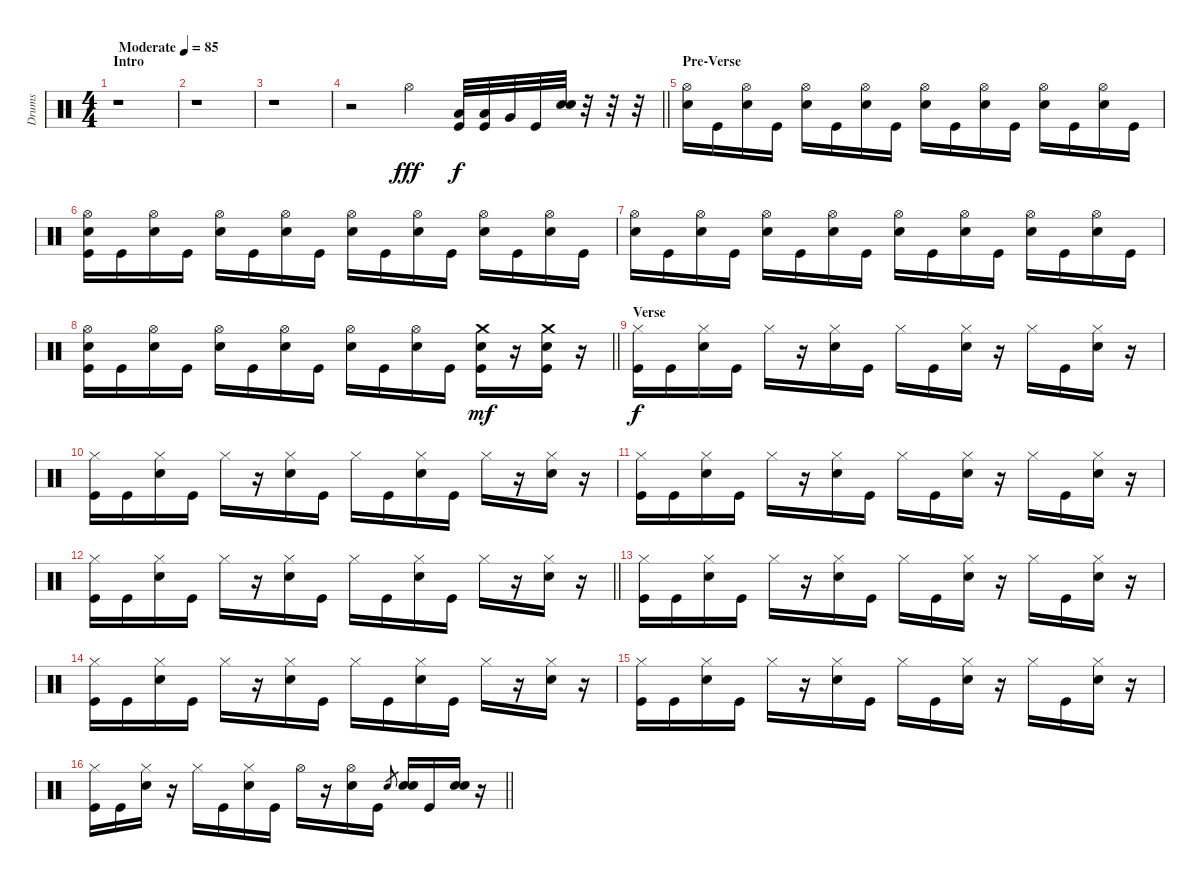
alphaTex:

\track ("Drums" "Drums") {instrument percussion}
\staff {score}
\articulation defaults
\ts (4 4)
\section ("" "Intro")
\tempo (85 "Moderate")
\clef neutral
\ks c
r.1{dy fff} |
r.1 |
r.1 |
\barLineRight lightlight
r.2{volume 2} "Hi-Hat (open)".4{volume 13} ("Low Tom (hit)" "Kick (hit)").32{dy f} ("Low Tom (hit)" "Kick (hit)").32 "Very Low Tom (hit)".32 "Kick (hit)".32 ("Electric Snare (hit)" "Electric Snare (hit)").32 r.32 r.32 r.32 |
\section ("" "Pre-Verse")
("Hi-Hat (open)" "Electric Snare (hit)").16 "Kick (hit)".16 ("Hi-Hat (open)" "Electric Snare (hit)").16 "Kick (hit)".16 ("Hi-Hat (open)" "Electric Snare (hit)").16 "Kick (hit)".16 ("Hi-Hat (open)" "Electric Snare (hit)").16 "Kick (hit)".16 ("Hi-Hat (open)" "Electric Snare (hit)").16 "Kick (hit)".16 ("Hi-Hat (open)" "Electric Snare (hit)").16 "Kick (hit)".16 ("Hi-Hat (open)" "Electric Snare (hit)").16 "Kick (hit)".16 ("Hi-Hat (open)" "Electric Snare (hit)").16 "Kick (hit)".16 |
("Hi-Hat (open)" "Electric Snare (hit)" "Kick (hit)").16 "Kick (hit)".16 ("Hi-Hat (open)" "Electric Snare (hit)").16 "Kick (hit)".16 ("Hi-Hat (open)" "Electric Snare (hit)").16 "Kick (hit)".16 ("Hi-Hat (open)" "Electric Snare (hit)").16 "Kick (hit)".16 ("Hi-Hat (open)" "Electric Snare (hit)").16 "Kick (hit)".16 ("Hi-Hat (open)" "Electric Snare (hit)").16 "Kick (hit)".16 ("Hi-Hat (open)" "Electric Snare (hit)").16 "Kick (hit)".16 ("Hi-Hat (open)" "Electric Snare (hit)").16 "Kick (hit)".16 |
("Hi-Hat (open)" "Electric Snare (hit)").16 "Kick (hit)".16 ("Hi-Hat (open)" "Electric Snare (hit)").16 "Kick (hit)".16 ("Hi-Hat (open)" "Electric Snare (hit)").16 "Kick (hit)".16 ("Hi-Hat (open)" "Electric Snare (hit)").16 "Kick (hit)".16 ("Hi-Hat (open)" "Electric Snare (hit)").16 "Kick (hit)".16 ("Hi-Hat (open)" "Electric Snare (hit)").16 "Kick (hit)".16 ("Hi-Hat (open)" "Electric Snare (hit)").16 "Kick (hit)".16 ("Hi-Hat (open)" "Electric Snare (hit)").16 "Kick (hit)".16 |
\barLineRight lightlight
("Hi-Hat (open)" "Electric Snare (hit)" "Kick (hit)").16 "Kick (hit)".16 ("Hi-Hat (open)" "Electric Snare (hit)").16 "Kick (hit)".16 ("Hi-Hat (open)" "Electric Snare (hit)").16 "Kick (hit)".16 ("Hi-Hat (open)" "Electric Snare (hit)").16 "Kick (hit)".16 ("Hi-Hat (open)" "Electric Snare (hit)").16 "Kick (hit)".16 ("Hi-Hat (open)" "Electric Snare (hit)").16 "Kick (hit)".16 ("Crash medium (hit)" "Electric Snare (hit)" "Kick (hit)").16{dy mf} r.16 ("Crash medium (hit)" "Electric Snare (hit)" "Kick (hit)").16 r.16 |
\section ("" "Verse")
("Hi-Hat (closed)" "Kick (hit)").16{dy f} "Kick (hit)".16 ("Hi-Hat (closed)" "Electric Snare (hit)").16 "Kick (hit)".16 "Hi-Hat (closed)".16 r.16 ("Hi-Hat (closed)" "Electric Snare (hit)").16 "Kick (hit)".16 "Hi-Hat (closed)".16 "Kick (hit)".16 ("Hi-Hat (closed)" "Electric Snare (hit)").16 r.16 "Hi-Hat (closed)".16 "Kick (hit)".16 ("Hi-Hat (closed)" "Electric Snare (hit)").16 r.16 |
("Hi-Hat (closed)" "Kick (hit)").16 "Kick (hit)".16 ("Hi-Hat (closed)" "Electric Snare (hit)").16 "Kick (hit)".16 "Hi-Hat (closed)".16 r.16 ("Hi-Hat (closed)" "Electric Snare (hit)").16 "Kick (hit)".16 "Hi-Hat (closed)".16 "Kick (hit)".16 ("Hi-Hat (closed)" "Electric Snare (hit)").16 "Kick (hit)".16 "Hi-Hat (closed)".16 r.16 ("Hi-Hat (closed)" "Electric Snare (hit)").16 r.16 |
("Hi-Hat (closed)" "Kick (hit)").16 "Kick (hit)".16 ("Hi-Hat (closed)" "Electric Snare (hit)").16 "Kick (hit)".16 "Hi-Hat (closed)".16 r.16 ("Hi-Hat (closed)" "Electric Snare (hit)").16 "Kick (hit)".16 "Hi-Hat (closed)".16 "Kick (hit)".16 ("Hi-Hat (closed)" "Electric Snare (hit)").16 r.16 "Hi-Hat (closed)".16 "Kick (hit)".16 ("Hi-Hat (closed)" "Electric Snare (hit)").16 r.16 |
\barLineRight lightlight
("Hi-Hat (closed)" "Kick (hit)").16 "Kick (hit)".16 ("Hi-Hat (closed)" "Electric Snare (hit)").16 "Kick (hit)".16 "Hi-Hat (closed)".16 r.16 ("Hi-Hat (closed)" "Electric Snare (hit)").16 "Kick (hit)".16 "Hi-Hat (closed)".16 "Kick (hit)".16 ("Hi-Hat (closed)" "Electric Snare (hit)").16 "Kick (hit)".16 "Hi-Hat (closed)".16 r.16 ("Hi-Hat (closed)" "Electric Snare (hit)").16 r.16 |
("Hi-Hat (closed)" "Kick (hit)").16 "Kick (hit)".16 ("Hi-Hat (closed)" "Electric Snare (hit)").16 "Kick (hit)".16 "Hi-Hat (closed)".16 r.16 ("Hi-Hat (closed)" "Electric Snare (hit)").16 "Kick (hit)".16 "Hi-Hat (closed)".16 "Kick (hit)".16 ("Hi-Hat (closed)" "Electric Snare (hit)").16 r.16 "Hi-Hat (closed)".16 "Kick (hit)".16 ("Hi-Hat (closed)" "Electric Snare (hit)").16 r.16 |
("Hi-Hat (closed)" "Kick (hit)").16 "Kick (hit)".16 ("Hi-Hat (closed)" "Electric Snare (hit)").16 "Kick (hit)".16 "Hi-Hat (closed)".16 r.16 ("Hi-Hat (closed)" "Electric Snare (hit)").16 "Kick (hit)".16 "Hi-Hat (closed)".16 "Kick (hit)".16 ("Hi-Hat (closed)" "Electric Snare (hit)").16 "Kick (hit)".16 "Hi-Hat (closed)".16 r.16 ("Hi-Hat (closed)" "Electric Snare (hit)").16 r.16 |
("Hi-Hat (closed)" "Kick (hit)").16 "Kick (hit)".16 ("Hi-Hat (closed)" "Electric Snare (hit)").16 "Kick (hit)".16 "Hi-Hat (closed)".16 r.16 ("Hi-Hat (closed)" "Electric Snare (hit)").16 "Kick (hit)".16 "Hi-Hat (closed)".16 "Kick (hit)".16 ("Hi-Hat (closed)" "Electric Snare (hit)").16 r.16 "Hi-Hat (closed)".16 "Kick (hit)".16 ("Hi-Hat (closed)" "Electric Snare (hit)").16 r.16 |
\barLineRight lightlight
("Hi-Hat (closed)" "Kick (hit)").16 "Kick (hit)".16 ("Hi-Hat (closed)" "Electric Snare (hit)").16 r.16 "Hi-Hat (closed)".16 "Kick (hit)".16 ("Hi-Hat (closed)" "Electric Snare (hit)").16 "Kick (hit)".16 "Hi-Hat (open)".16 r.16 ("Hi-Hat (open)" "Electric Snare (hit)").16 "Kick (hit)".16 "Electric Snare (hit)".8{gr} ("Electric Snare (hit)" "Electric Snare (hit)").16 "Kick (hit)".16 ("Electric Snare (hit)" "Electric Snare (hit)").16 r.16
